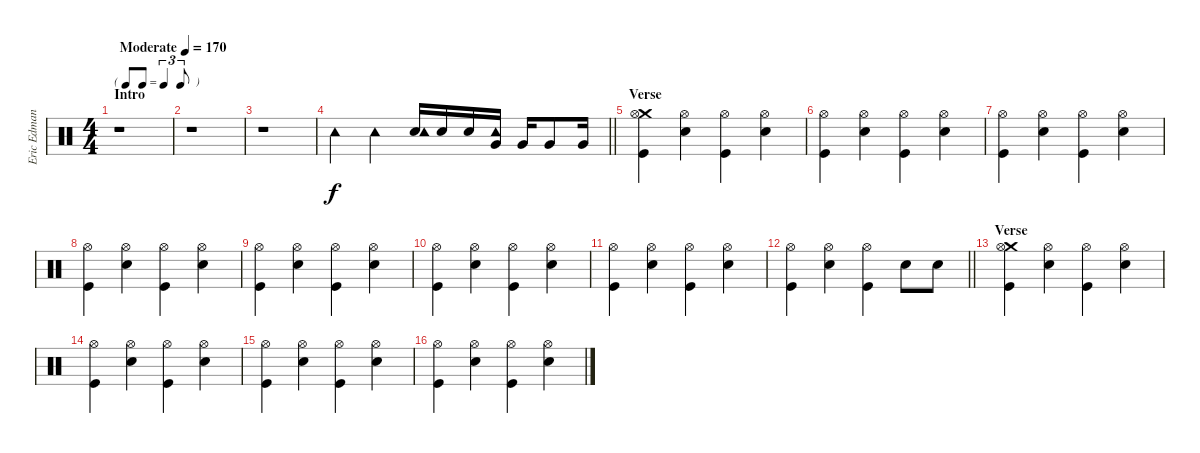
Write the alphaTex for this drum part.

\track ("Eric Edman - Drums" "Eric Edman") {instrument percussion}
\staff {score}
\articulation defaults
\ts (4 4)
\tf triplet8th
\section ("" "Intro")
\tempo (170 "Moderate")
\clef neutral
\ks c
r.1{dy f} |
r.1 |
r.1 |
\barLineRight lightlight "Tambourine (hit)".4 "Tambourine (hit)".4
("Snare (hit) 2" "Tambourine (hit)").16 "Snare (hit) 2".16 "Snare (hit) 2".16 ("Very Low Tom (hit)" "Tambourine (hit)").16 "Very Low Tom (hit)".16 "Very Low Tom (hit)".8 "Very Low Tom (hit)".16 |
\section ("" "Verse")
("Crash medium (hit)" "Hi-Hat (open)" "Kick (hit)").4 ("Hi-Hat (open)" "Snare (hit) 2").4 ("Hi-Hat (open)" "Kick (hit)").4 ("Hi-Hat (open)" "Snare (hit) 2").4 |
("Hi-Hat (open)" "Kick (hit)").4 ("Hi-Hat (open)" "Snare (hit) 2").4 ("Hi-Hat (open)" "Kick (hit)").4 ("Hi-Hat (open)" "Snare (hit) 2").4 |
("Hi-Hat (open)" "Kick (hit)").4 ("Hi-Hat (open)" "Snare (hit) 2").4 ("Hi-Hat (open)" "Kick (hit)").4 ("Hi-Hat (open)" "Snare (hit) 2").4 |
("Hi-Hat (open)" "Kick (hit)").4 ("Hi-Hat (open)" "Snare (hit) 2").4 ("Hi-Hat (open)" "Kick (hit)").4 ("Hi-Hat (open)" "Snare (hit) 2").4 |
("Hi-Hat (open)" "Kick (hit)").4 ("Hi-Hat (open)" "Snare (hit) 2").4 ("Hi-Hat (open)" "Kick (hit)").4 ("Hi-Hat (open)" "Snare (hit) 2").4 |
("Hi-Hat (open)" "Kick (hit)").4 ("Hi-Hat (open)" "Snare (hit) 2").4 ("Hi-Hat (open)" "Kick (hit)").4 ("Hi-Hat (open)" "Snare (hit) 2").4 |
("Hi-Hat (open)" "Kick (hit)").4 ("Hi-Hat (open)" "Snare (hit) 2").4 ("Hi-Hat (open)" "Kick (hit)").4 ("Hi-Hat (open)" "Snare (hit) 2").4 |
\barLineRight lightlight
("Hi-Hat (open)" "Kick (hit)").4 ("Hi-Hat (open)" "Snare (hit) 2").4 ("Hi-Hat (open)" "Kick (hit)").4 "Snare (hit) 2".8 "Snare (hit) 2".8 |
\section ("" "Verse")
("Crash medium (hit)" "Hi-Hat (open)" "Kick (hit)").4 ("Hi-Hat (open)" "Snare (hit) 2").4 ("Hi-Hat (open)" "Kick (hit)").4 ("Hi-Hat (open)" "Snare (hit) 2").4 |
("Hi-Hat (open)" "Kick (hit)").4 ("Hi-Hat (open)" "Snare (hit) 2").4 ("Hi-Hat (open)" "Kick (hit)").4 ("Hi-Hat (open)" "Snare (hit) 2").4 |
("Hi-Hat (open)" "Kick (hit)").4 ("Hi-Hat (open)" "Snare (hit) 2").4 ("Hi-Hat (open)" "Kick (hit)").4 ("Hi-Hat (open)" "Snare (hit) 2").4 |
("Hi-Hat (open)" "Kick (hit)").4 ("Hi-Hat (open)" "Snare (hit) 2").4 ("Hi-Hat (open)" "Kick (hit)").4 ("Hi-Hat (open)" "Snare (hit) 2").4
